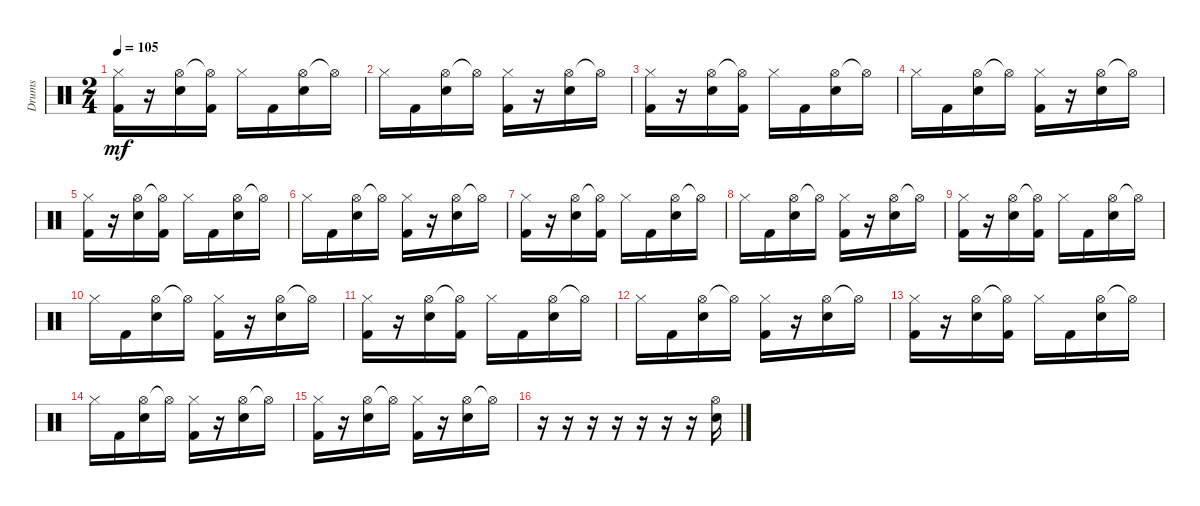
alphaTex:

\defaultSystemsLayout 4
\bracketExtendMode groupsimilarinstruments
\otherSystemsTrackNameOrientation horizontal
\track ("Godd" "Drums") {instrument percussion}
\staff {score}
\articulation defaults
\ts (2 4)
\tempo 105
\clef neutral
\ks c
("Hi-Hat (closed)" "Kick (hit) 2").16{dy mf} r.16 ("Hi-Hat (open)" "Snare (hit) 2").16 ("Hi-Hat (open)"{t} "Kick (hit) 2").16 "Hi-Hat (closed)".16 "Kick (hit) 2".16 ("Hi-Hat (open)" "Snare (hit) 2").16 "Hi-Hat (open)"{t}.16 |
"Hi-Hat (closed)".16 "Kick (hit) 2".16 ("Hi-Hat (open)" "Snare (hit) 2").16 "Hi-Hat (open)"{t}.16 ("Kick (hit) 2" "Hi-Hat (closed)").16 r.16 ("Hi-Hat (open)" "Snare (hit) 2").16 "Hi-Hat (open)"{t}.16 |
("Hi-Hat (closed)" "Kick (hit) 2").16 r.16 ("Hi-Hat (open)" "Snare (hit) 2").16 ("Hi-Hat (open)"{t} "Kick (hit) 2").16 "Hi-Hat (closed)".16 "Kick (hit) 2".16 ("Hi-Hat (open)" "Snare (hit) 2").16 "Hi-Hat (open)"{t}.16 |
"Hi-Hat (closed)".16 "Kick (hit) 2".16 ("Hi-Hat (open)" "Snare (hit) 2").16 "Hi-Hat (open)"{t}.16 ("Kick (hit) 2" "Hi-Hat (closed)").16 r.16 ("Hi-Hat (open)" "Snare (hit) 2").16 "Hi-Hat (open)"{t}.16 |
("Hi-Hat (closed)" "Kick (hit) 2").16 r.16 ("Hi-Hat (open)" "Snare (hit) 2").16 ("Hi-Hat (open)"{t} "Kick (hit) 2").16 "Hi-Hat (closed)".16 "Kick (hit) 2".16 ("Hi-Hat (open)" "Snare (hit) 2").16 "Hi-Hat (open)"{t}.16 |
"Hi-Hat (closed)".16 "Kick (hit) 2".16 ("Hi-Hat (open)" "Snare (hit) 2").16 "Hi-Hat (open)"{t}.16 ("Kick (hit) 2" "Hi-Hat (closed)").16 r.16 ("Hi-Hat (open)" "Snare (hit) 2").16 "Hi-Hat (open)"{t}.16 |
("Hi-Hat (closed)" "Kick (hit) 2").16 r.16 ("Hi-Hat (open)" "Snare (hit) 2").16 ("Hi-Hat (open)"{t} "Kick (hit) 2").16 "Hi-Hat (closed)".16 "Kick (hit) 2".16 ("Hi-Hat (open)" "Snare (hit) 2").16 "Hi-Hat (open)"{t}.16 |
"Hi-Hat (closed)".16 "Kick (hit) 2".16 ("Hi-Hat (open)" "Snare (hit) 2").16 "Hi-Hat (open)"{t}.16 ("Kick (hit) 2" "Hi-Hat (closed)").16 r.16 ("Hi-Hat (open)" "Snare (hit) 2").16 "Hi-Hat (open)"{t}.16 |
("Hi-Hat (closed)" "Kick (hit) 2").16 r.16 ("Hi-Hat (open)" "Snare (hit) 2").16 ("Hi-Hat (open)"{t} "Kick (hit) 2").16 "Hi-Hat (closed)".16 "Kick (hit) 2".16 ("Hi-Hat (open)" "Snare (hit) 2").16 "Hi-Hat (open)"{t}.16 |
"Hi-Hat (closed)".16 "Kick (hit) 2".16 ("Hi-Hat (open)" "Snare (hit) 2").16 "Hi-Hat (open)"{t}.16 ("Kick (hit) 2" "Hi-Hat (closed)").16 r.16 ("Hi-Hat (open)" "Snare (hit) 2").16 "Hi-Hat (open)"{t}.16 |
("Hi-Hat (closed)" "Kick (hit) 2").16 r.16 ("Hi-Hat (open)" "Snare (hit) 2").16 ("Hi-Hat (open)"{t} "Kick (hit) 2").16 "Hi-Hat (closed)".16 "Kick (hit) 2".16 ("Hi-Hat (open)" "Snare (hit) 2").16 "Hi-Hat (open)"{t}.16 |
"Hi-Hat (closed)".16 "Kick (hit) 2".16 ("Hi-Hat (open)" "Snare (hit) 2").16 "Hi-Hat (open)"{t}.16 ("Kick (hit) 2" "Hi-Hat (closed)").16 r.16 ("Hi-Hat (open)" "Snare (hit) 2").16 "Hi-Hat (open)"{t}.16 |
("Hi-Hat (closed)" "Kick (hit) 2").16 r.16 ("Hi-Hat (open)" "Snare (hit) 2").16 ("Hi-Hat (open)"{t} "Kick (hit) 2").16 "Hi-Hat (closed)".16 "Kick (hit) 2".16 ("Hi-Hat (open)" "Snare (hit) 2").16 "Hi-Hat (open)"{t}.16 |
"Hi-Hat (closed)".16 "Kick (hit) 2".16 ("Hi-Hat (open)" "Snare (hit) 2").16 "Hi-Hat (open)"{t}.16 ("Kick (hit) 2" "Hi-Hat (closed)").16 r.16 ("Hi-Hat (open)" "Snare (hit) 2").16 "Hi-Hat (open)"{t}.16 |
("Hi-Hat (closed)" "Kick (hit) 2").16 r.16 ("Hi-Hat (open)" "Snare (hit) 2").16 "Hi-Hat (open)"{t}.16 ("Hi-Hat (closed)" "Kick (hit) 2").16 r.16 ("Hi-Hat (open)" "Snare (hit) 2").16 "Hi-Hat (open)"{t}.16 |
r.16 r.16 r.16 r.16 r.16 r.16 r.16 ("Snare (hit) 2" "Hi-Hat (open)").16
